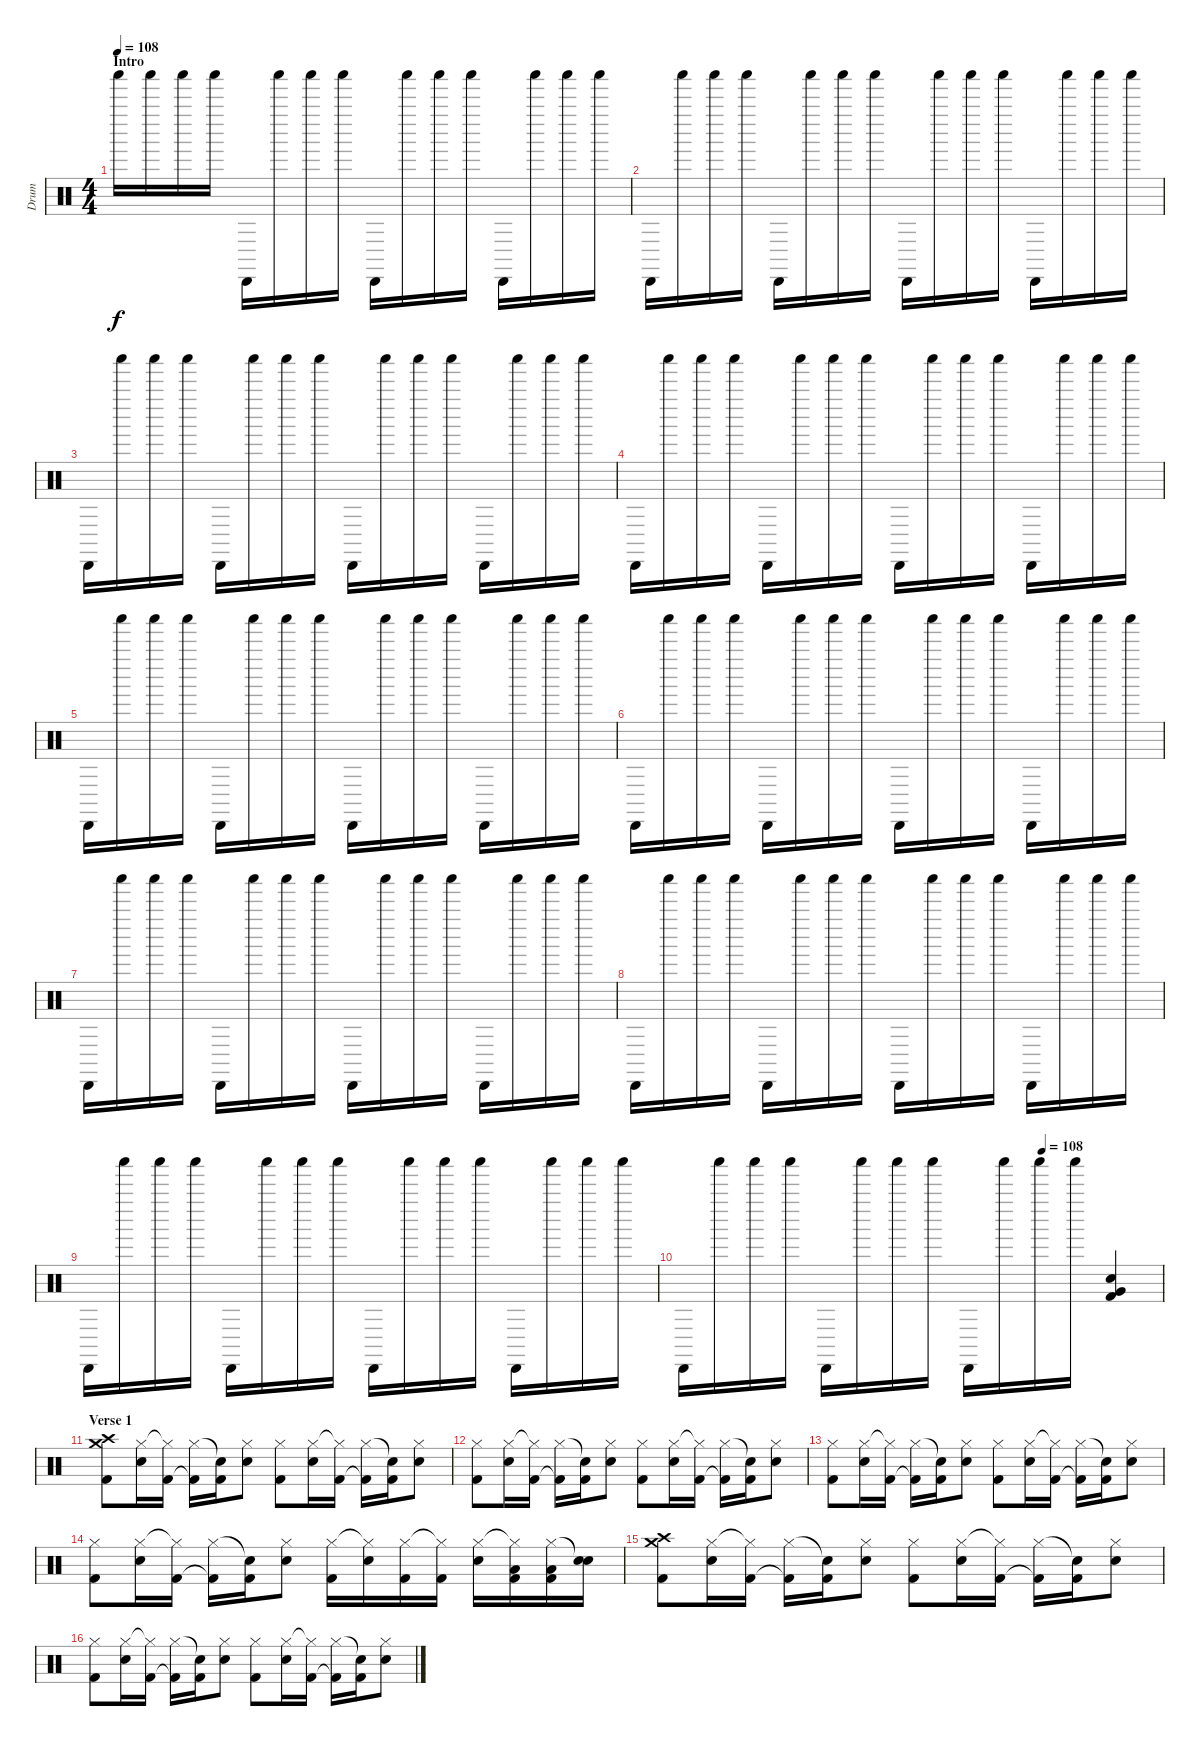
\track ("Drum" "Drum") {instrument percussion}
\staff {score}
\articulation defaults
\ts (4 4)
\section ("" "Intro")
\tempo 108
\tempo 115
\tempo 108
\clef neutral
\ks c "Shaker (hit)".16{dy f volume 6} "Shaker (hit)".16 "Shaker (hit)".16 "Shaker (hit)".16 "Cabasa (hit)".16 "Shaker (hit)".16 "Shaker (hit)".16 "Shaker (hit)".16 "Cabasa (hit)".16 "Shaker (hit)".16 "Shaker (hit)".16 "Shaker (hit)".16 "Cabasa (hit)".16 "Shaker (hit)".16 "Shaker (hit)".16 "Shaker (hit)".16
|
"Cabasa (hit)".16 "Shaker (hit)".16 "Shaker (hit)".16 "Shaker (hit)".16 "Cabasa (hit)".16 "Shaker (hit)".16 "Shaker (hit)".16 "Shaker (hit)".16 "Cabasa (hit)".16 "Shaker (hit)".16 "Shaker (hit)".16 "Shaker (hit)".16 "Cabasa (hit)".16 "Shaker (hit)".16 "Shaker (hit)".16 "Shaker (hit)".16 |
"Cabasa (hit)".16 "Shaker (hit)".16 "Shaker (hit)".16 "Shaker (hit)".16 "Cabasa (hit)".16 "Shaker (hit)".16 "Shaker (hit)".16 "Shaker (hit)".16 "Cabasa (hit)".16 "Shaker (hit)".16 "Shaker (hit)".16 "Shaker (hit)".16 "Cabasa (hit)".16 "Shaker (hit)".16 "Shaker (hit)".16 "Shaker (hit)".16 |
"Cabasa (hit)".16 "Shaker (hit)".16 "Shaker (hit)".16 "Shaker (hit)".16 "Cabasa (hit)".16 "Shaker (hit)".16 "Shaker (hit)".16 "Shaker (hit)".16 "Cabasa (hit)".16 "Shaker (hit)".16 "Shaker (hit)".16 "Shaker (hit)".16 "Cabasa (hit)".16 "Shaker (hit)".16 "Shaker (hit)".16 "Shaker (hit)".16 |
"Cabasa (hit)".16 "Shaker (hit)".16 "Shaker (hit)".16 "Shaker (hit)".16 "Cabasa (hit)".16 "Shaker (hit)".16 "Shaker (hit)".16 "Shaker (hit)".16 "Cabasa (hit)".16 "Shaker (hit)".16 "Shaker (hit)".16 "Shaker (hit)".16 "Cabasa (hit)".16 "Shaker (hit)".16 "Shaker (hit)".16 "Shaker (hit)".16 |
"Cabasa (hit)".16 "Shaker (hit)".16 "Shaker (hit)".16 "Shaker (hit)".16 "Cabasa (hit)".16 "Shaker (hit)".16 "Shaker (hit)".16 "Shaker (hit)".16 "Cabasa (hit)".16 "Shaker (hit)".16 "Shaker (hit)".16 "Shaker (hit)".16 "Cabasa (hit)".16 "Shaker (hit)".16 "Shaker (hit)".16 "Shaker (hit)".16 |
"Cabasa (hit)".16 "Shaker (hit)".16 "Shaker (hit)".16 "Shaker (hit)".16 "Cabasa (hit)".16 "Shaker (hit)".16 "Shaker (hit)".16 "Shaker (hit)".16 "Cabasa (hit)".16 "Shaker (hit)".16 "Shaker (hit)".16 "Shaker (hit)".16 "Cabasa (hit)".16 "Shaker (hit)".16 "Shaker (hit)".16 "Shaker (hit)".16 |
"Cabasa (hit)".16 "Shaker (hit)".16 "Shaker (hit)".16 "Shaker (hit)".16 "Cabasa (hit)".16 "Shaker (hit)".16 "Shaker (hit)".16 "Shaker (hit)".16 "Cabasa (hit)".16 "Shaker (hit)".16 "Shaker (hit)".16 "Shaker (hit)".16 "Cabasa (hit)".16 "Shaker (hit)".16 "Shaker (hit)".16 "Shaker (hit)".16 |
"Cabasa (hit)".16 "Shaker (hit)".16 "Shaker (hit)".16 "Shaker (hit)".16 "Cabasa (hit)".16 "Shaker (hit)".16 "Shaker (hit)".16 "Shaker (hit)".16 "Cabasa (hit)".16 "Shaker (hit)".16 "Shaker (hit)".16 "Shaker (hit)".16 "Cabasa (hit)".16 "Shaker (hit)".16 "Shaker (hit)".16 "Shaker (hit)".16 |
\tempo (108 0.75)
"Cabasa (hit)".16 "Shaker (hit)".16 "Shaker (hit)".16 "Shaker (hit)".16 "Cabasa (hit)".16 "Shaker (hit)".16 "Shaker (hit)".16 "Shaker (hit)".16 "Cabasa (hit)".16 "Shaker (hit)".16 "Shaker (hit)".16 "Shaker (hit)".16 ("Very Low Tom (hit)" "Electric Snare (hit)" "Kick (hit) 2").4{volume 11} |
\section ("" "Verse 1")
("Crash medium (hit)" "Crash high (hit)" "Kick (hit) 2").8 ("Hi-Hat (closed)" "Electric Snare (hit)").16 ("Hi-Hat (closed)"{t} "Kick (hit) 2").16 ("Hi-Hat (closed)" "Kick (hit) 2"{t}).16 ("Snare (hit)"{t} "Kick (hit) 2").16 ("Hi-Hat (closed)" "Electric Snare (hit)").8 ("Hi-Hat (closed)" "Kick (hit) 2").8 ("Hi-Hat (closed)" "Electric Snare (hit)").16 ("Hi-Hat (closed)"{t} "Kick (hit) 2").16 ("Hi-Hat (closed)" "Kick (hit) 2"{t}).16 ("Snare (hit)"{t} "Kick (hit) 2").16 ("Hi-Hat (closed)" "Electric Snare (hit)").8 |
("Hi-Hat (closed)" "Kick (hit) 2").8 ("Hi-Hat (closed)" "Electric Snare (hit)").16 ("Hi-Hat (closed)"{t} "Kick (hit) 2").16 ("Hi-Hat (closed)" "Kick (hit) 2"{t}).16 ("Snare (hit)"{t} "Kick (hit) 2").16 ("Hi-Hat (closed)" "Electric Snare (hit)").8 ("Hi-Hat (closed)" "Kick (hit) 2").8 ("Hi-Hat (closed)" "Electric Snare (hit)").16 ("Hi-Hat (closed)"{t} "Kick (hit) 2").16 ("Hi-Hat (closed)" "Kick (hit) 2"{t}).16 ("Snare (hit)"{t} "Kick (hit) 2").16 ("Hi-Hat (closed)" "Electric Snare (hit)").8 |
("Hi-Hat (closed)" "Kick (hit) 2").8 ("Hi-Hat (closed)" "Electric Snare (hit)").16 ("Hi-Hat (closed)"{t} "Kick (hit) 2").16 ("Hi-Hat (closed)" "Kick (hit) 2"{t}).16 ("Snare (hit)"{t} "Kick (hit) 2").16 ("Hi-Hat (closed)" "Electric Snare (hit)").8 ("Hi-Hat (closed)" "Kick (hit) 2").8 ("Hi-Hat (closed)" "Electric Snare (hit)").16 ("Hi-Hat (closed)"{t} "Kick (hit) 2").16 ("Hi-Hat (closed)" "Kick (hit) 2"{t}).16 ("Snare (hit)"{t} "Kick (hit) 2").16 ("Hi-Hat (closed)" "Electric Snare (hit)").8 |
("Hi-Hat (closed)" "Kick (hit) 2").8 ("Hi-Hat (closed)" "Electric Snare (hit)").16 ("Hi-Hat (closed)"{t} "Kick (hit) 2").16 ("Hi-Hat (closed)" "Kick (hit) 2"{t}).16 ("Snare (hit)"{t} "Kick (hit) 2").16 ("Hi-Hat (closed)" "Electric Snare (hit)").8 ("Hi-Hat (closed)" "Kick (hit) 2").16 ("Hi-Hat (closed)"{t} "Electric Snare (hit)").16 ("Hi-Hat (closed)" "Kick (hit) 2").16 ("Hi-Hat (closed)"{t} "Kick (hit) 2").16 ("Hi-Hat (closed)" "Electric Snare (hit)").16 ("Hi-Hat (closed)"{t} "Low Floor Tom (hit)" "Kick (hit) 2").16 ("Hi-Hat (closed)" "Low Tom (hit)" "Kick (hit) 2").16 ("Snare (hit)"{t} "Electric Snare (hit)").16 |
("Crash medium (hit)" "Crash high (hit)" "Kick (hit) 2").8 ("Hi-Hat (closed)" "Electric Snare (hit)").16 ("Hi-Hat (closed)"{t} "Kick (hit) 2").16 ("Hi-Hat (closed)" "Kick (hit) 2"{t}).16 ("Snare (hit)"{t} "Kick (hit) 2").16 ("Hi-Hat (closed)" "Electric Snare (hit)").8 ("Hi-Hat (closed)" "Kick (hit) 2").8 ("Hi-Hat (closed)" "Electric Snare (hit)").16 ("Hi-Hat (closed)"{t} "Kick (hit) 2").16 ("Hi-Hat (closed)" "Kick (hit) 2"{t}).16 ("Snare (hit)"{t} "Kick (hit) 2").16 ("Hi-Hat (closed)" "Electric Snare (hit)").8 |
("Hi-Hat (closed)" "Kick (hit) 2").8 ("Hi-Hat (closed)" "Electric Snare (hit)").16 ("Hi-Hat (closed)"{t} "Kick (hit) 2").16 ("Hi-Hat (closed)" "Kick (hit) 2"{t}).16 ("Snare (hit)"{t} "Kick (hit) 2").16 ("Hi-Hat (closed)" "Electric Snare (hit)").8 ("Hi-Hat (closed)" "Kick (hit) 2").8 ("Hi-Hat (closed)" "Electric Snare (hit)").16 ("Hi-Hat (closed)"{t} "Kick (hit) 2").16 ("Hi-Hat (closed)" "Kick (hit) 2"{t}).16 ("Snare (hit)"{t} "Kick (hit) 2").16 ("Hi-Hat (closed)" "Electric Snare (hit)").8
